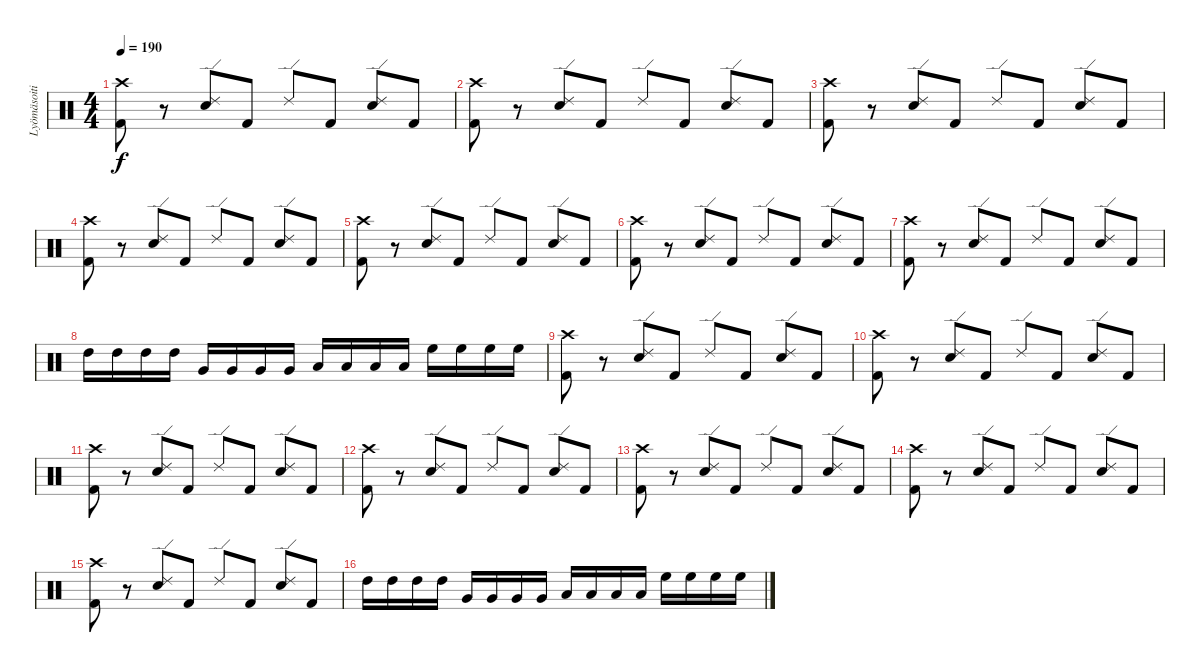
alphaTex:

\track ("Lyömäsoitin" "Lyömäsoiti") {instrument percussion}
\staff {score}
\articulation defaults
\ts (4 4)
\tempo 190
\clef neutral
\ks c
("Crash high (hit)" "Kick (hit) 2").8{dy f} r.8 ("Ride (edge) 2" "Electric Snare (hit)").8 "Kick (hit) 2".8 "Ride (edge) 2".8 "Kick (hit) 2".8 ("Ride (edge) 2" "Electric Snare (hit)").8 "Kick (hit) 2".8 |
("Crash high (hit)" "Kick (hit) 2").8 r.8 ("Ride (edge) 2" "Electric Snare (hit)").8 "Kick (hit) 2".8 "Ride (edge) 2".8 "Kick (hit) 2".8 ("Ride (edge) 2" "Electric Snare (hit)").8 "Kick (hit) 2".8 |
("Crash high (hit)" "Kick (hit) 2").8 r.8 ("Ride (edge) 2" "Electric Snare (hit)").8 "Kick (hit) 2".8 "Ride (edge) 2".8 "Kick (hit) 2".8 ("Ride (edge) 2" "Electric Snare (hit)").8 "Kick (hit) 2".8 |
("Crash high (hit)" "Kick (hit) 2").8 r.8 ("Ride (edge) 2" "Electric Snare (hit)").8 "Kick (hit) 2".8 "Ride (edge) 2".8 "Kick (hit) 2".8 ("Ride (edge) 2" "Electric Snare (hit)").8 "Kick (hit) 2".8 |
("Crash high (hit)" "Kick (hit) 2").8 r.8 ("Ride (edge) 2" "Electric Snare (hit)").8 "Kick (hit) 2".8 "Ride (edge) 2".8 "Kick (hit) 2".8 ("Ride (edge) 2" "Electric Snare (hit)").8 "Kick (hit) 2".8 |
("Crash high (hit)" "Kick (hit) 2").8 r.8 ("Ride (edge) 2" "Electric Snare (hit)").8 "Kick (hit) 2".8 "Ride (edge) 2".8 "Kick (hit) 2".8 ("Ride (edge) 2" "Electric Snare (hit)").8 "Kick (hit) 2".8 |
("Crash high (hit)" "Kick (hit) 2").8 r.8 ("Ride (edge) 2" "Electric Snare (hit)").8 "Kick (hit) 2".8 "Ride (edge) 2".8 "Kick (hit) 2".8 ("Ride (edge) 2" "Electric Snare (hit)").8 "Kick (hit) 2".8 |
"High Tom (hit)".16 "High Tom (hit)".16 "High Tom (hit)".16 "High Tom (hit)".16 "Very Low Tom (hit)".16 "Very Low Tom (hit)".16 "Very Low Tom (hit)".16 "Very Low Tom (hit)".16 "Low Tom (hit)".16 "Low Tom (hit)".16 "Low Tom (hit)".16 "Low Tom (hit)".16 "High Floor Tom (hit)".16 "High Floor Tom (hit)".16 "High Floor Tom (hit)".16 "High Floor Tom (hit)".16 |
("Crash high (hit)" "Kick (hit) 2").8 r.8 ("Ride (edge) 2" "Electric Snare (hit)").8 "Kick (hit) 2".8 "Ride (edge) 2".8 "Kick (hit) 2".8 ("Ride (edge) 2" "Electric Snare (hit)").8 "Kick (hit) 2".8 |
("Crash high (hit)" "Kick (hit) 2").8 r.8 ("Ride (edge) 2" "Electric Snare (hit)").8 "Kick (hit) 2".8 "Ride (edge) 2".8 "Kick (hit) 2".8 ("Ride (edge) 2" "Electric Snare (hit)").8 "Kick (hit) 2".8 |
("Crash high (hit)" "Kick (hit) 2").8 r.8 ("Ride (edge) 2" "Electric Snare (hit)").8 "Kick (hit) 2".8 "Ride (edge) 2".8 "Kick (hit) 2".8 ("Ride (edge) 2" "Electric Snare (hit)").8 "Kick (hit) 2".8 |
("Crash high (hit)" "Kick (hit) 2").8 r.8 ("Ride (edge) 2" "Electric Snare (hit)").8 "Kick (hit) 2".8 "Ride (edge) 2".8 "Kick (hit) 2".8 ("Ride (edge) 2" "Electric Snare (hit)").8 "Kick (hit) 2".8 |
("Crash high (hit)" "Kick (hit) 2").8 r.8 ("Ride (edge) 2" "Electric Snare (hit)").8 "Kick (hit) 2".8 "Ride (edge) 2".8 "Kick (hit) 2".8 ("Ride (edge) 2" "Electric Snare (hit)").8 "Kick (hit) 2".8 |
("Crash high (hit)" "Kick (hit) 2").8 r.8 ("Ride (edge) 2" "Electric Snare (hit)").8 "Kick (hit) 2".8 "Ride (edge) 2".8 "Kick (hit) 2".8 ("Ride (edge) 2" "Electric Snare (hit)").8 "Kick (hit) 2".8 |
("Crash high (hit)" "Kick (hit) 2").8 r.8 ("Ride (edge) 2" "Electric Snare (hit)").8 "Kick (hit) 2".8 "Ride (edge) 2".8 "Kick (hit) 2".8 ("Ride (edge) 2" "Electric Snare (hit)").8 "Kick (hit) 2".8 |
"High Tom (hit)".16 "High Tom (hit)".16 "High Tom (hit)".16 "High Tom (hit)".16 "Very Low Tom (hit)".16 "Very Low Tom (hit)".16 "Very Low Tom (hit)".16 "Very Low Tom (hit)".16 "Low Tom (hit)".16 "Low Tom (hit)".16 "Low Tom (hit)".16 "Low Tom (hit)".16 "High Floor Tom (hit)".16 "High Floor Tom (hit)".16 "High Floor Tom (hit)".16 "High Floor Tom (hit)".16
